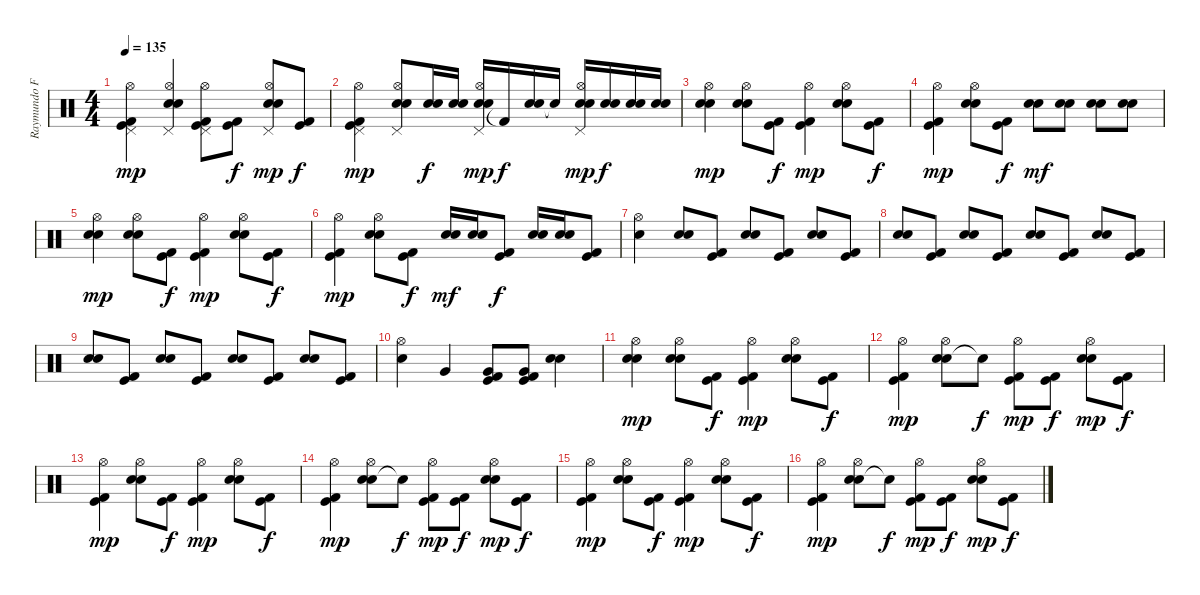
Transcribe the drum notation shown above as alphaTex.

\track ("Raymundo Fajardo" "Raymundo F") {instrument percussion}
\staff {score}
\articulation defaults
\ts (4 4)
\tempo 135
\clef neutral
\ks c
("Kick (hit) 2" "Kick (hit)" "Pedal Hi-Hat (hit)" "Hi-Hat (open)").4{dy mp} ("Electric Snare (hit)" "Snare (hit) 2" "Pedal Hi-Hat (hit)" "Hi-Hat (open)").4 ("Kick (hit) 2" "Kick (hit)" "Pedal Hi-Hat (hit)" "Hi-Hat (open)").8 ("Kick (hit) 2" "Kick (hit)").8{dy f} ("Electric Snare (hit)" "Snare (hit) 2" "Pedal Hi-Hat (hit)" "Hi-Hat (open)").8{dy mp} ("Kick (hit) 2" "Kick (hit)").8{dy f} |
("Kick (hit) 2" "Kick (hit)" "Pedal Hi-Hat (hit)" "Hi-Hat (open)").4{dy mp} ("Electric Snare (hit)" "Snare (hit) 2" "Pedal Hi-Hat (hit)" "Hi-Hat (open)").8 ("Electric Snare (hit)" "Snare (hit) 2").16{dy f} ("Electric Snare (hit)" "Snare (hit) 2").16 ("Electric Snare (hit)" "Snare (hit) 2" "Pedal Hi-Hat (hit)" "Hi-Hat (open)").16{dy mp} "Kick (hit) 2"{t}.16{dy f} ("Electric Snare (hit)" "Snare (hit) 2").16 "Snare (hit)"{t}.16 ("Electric Snare (hit)" "Snare (hit) 2" "Pedal Hi-Hat (hit)" "Hi-Hat (open)").16{dy mp} ("Electric Snare (hit)" "Snare (hit) 2").16{dy f} ("Electric Snare (hit)" "Snare (hit) 2").16 ("Electric Snare (hit)" "Snare (hit) 2").16 |
("Electric Snare (hit)" "Hi-Hat (open)" "Snare (hit) 2").4{dy mp} ("Electric Snare (hit)" "Hi-Hat (open)" "Snare (hit) 2").8 ("Kick (hit) 2" "Kick (hit)").8{dy f} ("Kick (hit) 2" "Hi-Hat (open)" "Kick (hit)").4{dy mp} ("Electric Snare (hit)" "Hi-Hat (open)" "Snare (hit) 2").8 ("Kick (hit) 2" "Kick (hit)").8{dy f} |
("Kick (hit) 2" "Hi-Hat (open)" "Kick (hit)").4{dy mp} ("Electric Snare (hit)" "Hi-Hat (open)" "Snare (hit) 2").8 ("Kick (hit) 2" "Kick (hit)").8{dy f} ("Electric Snare (hit)" "Snare (hit) 2").8{dy mf} ("Electric Snare (hit)" "Snare (hit) 2").8 ("Electric Snare (hit)" "Snare (hit) 2").8 ("Electric Snare (hit)" "Snare (hit) 2").8 |
("Electric Snare (hit)" "Hi-Hat (open)" "Snare (hit) 2").4{dy mp} ("Electric Snare (hit)" "Hi-Hat (open)" "Snare (hit) 2").8 ("Kick (hit) 2" "Kick (hit)").8{dy f} ("Kick (hit) 2" "Hi-Hat (open)" "Kick (hit)").4{dy mp} ("Electric Snare (hit)" "Hi-Hat (open)" "Snare (hit) 2").8 ("Kick (hit) 2" "Kick (hit)").8{dy f} |
("Kick (hit) 2" "Hi-Hat (open)" "Kick (hit)").4{dy mp} ("Electric Snare (hit)" "Hi-Hat (open)" "Snare (hit) 2").8 ("Kick (hit) 2" "Kick (hit)").8{dy f} ("Electric Snare (hit)" "Snare (hit) 2").16{dy mf} ("Electric Snare (hit)" "Snare (hit) 2").16 ("Kick (hit)" "Kick (hit) 2").8{dy f} ("Snare (hit) 2" "Electric Snare (hit)").16 ("Electric Snare (hit)" "Snare (hit) 2").16 ("Kick (hit) 2" "Kick (hit)").8 |
("Electric Snare (hit)" "Hi-Hat (open)").4 ("Electric Snare (hit)" "Snare (hit) 2").8 ("Kick (hit) 2" "Kick (hit)").8 ("Electric Snare (hit)" "Snare (hit) 2").8 ("Kick (hit) 2" "Kick (hit)").8 ("Electric Snare (hit)" "Snare (hit) 2").8 ("Kick (hit) 2" "Kick (hit)").8 |
("Electric Snare (hit)" "Snare (hit) 2").8 ("Kick (hit) 2" "Kick (hit)").8 ("Electric Snare (hit)" "Snare (hit) 2").8 ("Kick (hit) 2" "Kick (hit)").8 ("Electric Snare (hit)" "Snare (hit) 2").8 ("Kick (hit) 2" "Kick (hit)").8 ("Electric Snare (hit)" "Snare (hit) 2").8 ("Kick (hit) 2" "Kick (hit)").8 |
("Electric Snare (hit)" "Snare (hit) 2").8 ("Kick (hit) 2" "Kick (hit)").8 ("Electric Snare (hit)" "Snare (hit) 2").8 ("Kick (hit) 2" "Kick (hit)").8 ("Electric Snare (hit)" "Snare (hit) 2").8 ("Kick (hit) 2" "Kick (hit)").8 ("Electric Snare (hit)" "Snare (hit) 2").8 ("Kick (hit) 2" "Kick (hit)").8 |
("Electric Snare (hit)" "Hi-Hat (open)").4 "Very Low Tom (hit)".4 ("Very Low Tom (hit)" "Kick (hit)" "Kick (hit) 2").8 ("Very Low Tom (hit)" "Kick (hit)" "Kick (hit) 2").8 ("Electric Snare (hit)" "Snare (hit) 2").4 |
("Electric Snare (hit)" "Hi-Hat (open)" "Snare (hit) 2").4{dy mp} ("Electric Snare (hit)" "Snare (hit) 2" "Hi-Hat (open)").8 ("Kick (hit) 2" "Kick (hit)").8{dy f} ("Kick (hit) 2" "Kick (hit)" "Hi-Hat (open)").4{dy mp} ("Electric Snare (hit)" "Snare (hit) 2" "Hi-Hat (open)").8 ("Kick (hit) 2" "Kick (hit)").8{dy f} |
("Kick (hit) 2" "Kick (hit)" "Hi-Hat (open)").4{dy mp} ("Electric Snare (hit)" "Snare (hit) 2" "Hi-Hat (open)").8 "Snare (hit) 2"{t}.8{dy f} ("Kick (hit) 2" "Kick (hit)" "Hi-Hat (open)").8{dy mp} ("Kick (hit) 2" "Kick (hit)").8{dy f} ("Electric Snare (hit)" "Snare (hit) 2" "Hi-Hat (open)").8{dy mp} ("Kick (hit) 2" "Kick (hit)").8{dy f} |
("Kick (hit) 2" "Kick (hit)" "Hi-Hat (open)").4{dy mp} ("Electric Snare (hit)" "Snare (hit) 2" "Hi-Hat (open)").8 ("Kick (hit) 2" "Kick (hit)").8{dy f} ("Kick (hit) 2" "Kick (hit)" "Hi-Hat (open)").4{dy mp} ("Electric Snare (hit)" "Snare (hit) 2" "Hi-Hat (open)").8 ("Kick (hit) 2" "Kick (hit)").8{dy f} |
("Kick (hit) 2" "Kick (hit)" "Hi-Hat (open)").4{dy mp} ("Electric Snare (hit)" "Snare (hit) 2" "Hi-Hat (open)").8 "Snare (hit) 2"{t}.8{dy f} ("Kick (hit) 2" "Kick (hit)" "Hi-Hat (open)").8{dy mp} ("Kick (hit) 2" "Kick (hit)").8{dy f} ("Electric Snare (hit)" "Snare (hit) 2" "Hi-Hat (open)").8{dy mp} ("Kick (hit) 2" "Kick (hit)").8{dy f} |
("Kick (hit) 2" "Kick (hit)" "Hi-Hat (open)").4{dy mp} ("Electric Snare (hit)" "Snare (hit) 2" "Hi-Hat (open)").8 ("Kick (hit) 2" "Kick (hit)").8{dy f} ("Kick (hit) 2" "Kick (hit)" "Hi-Hat (open)").4{dy mp} ("Electric Snare (hit)" "Snare (hit) 2" "Hi-Hat (open)").8 ("Kick (hit) 2" "Kick (hit)").8{dy f} |
("Kick (hit) 2" "Kick (hit)" "Hi-Hat (open)").4{dy mp} ("Electric Snare (hit)" "Snare (hit) 2" "Hi-Hat (open)").8 "Snare (hit) 2"{t}.8{dy f} ("Kick (hit) 2" "Kick (hit)" "Hi-Hat (open)").8{dy mp} ("Kick (hit) 2" "Kick (hit)").8{dy f} ("Electric Snare (hit)" "Snare (hit) 2" "Hi-Hat (open)").8{dy mp} ("Kick (hit) 2" "Kick (hit)").8{dy f}
